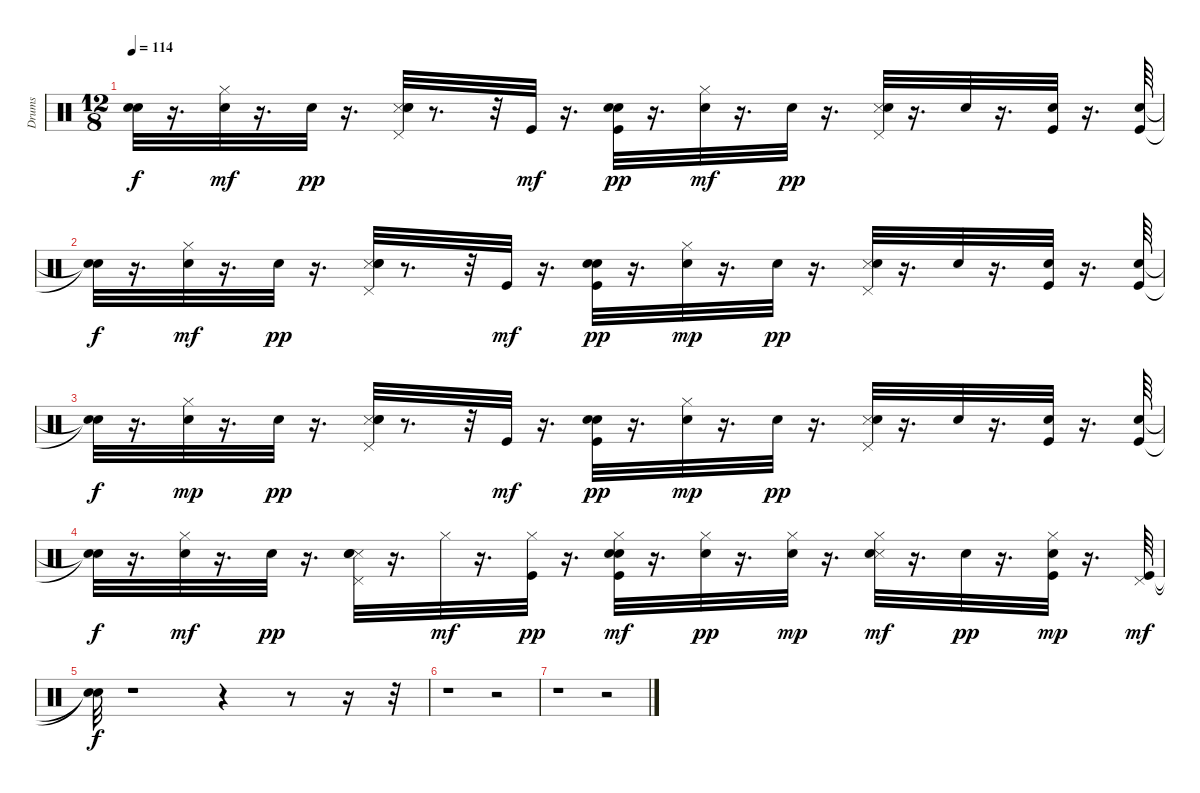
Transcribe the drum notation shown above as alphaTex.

\track ("Drums" "Drums") {instrument percussion}
\staff {score}
\articulation defaults
\ts (12 8)
\tempo 114
\clef neutral
\ks c
("Snare (hit)"{t} "Snare (hit)"{t}).32{dy f} r.16{d} ("Snare (hit) 2" "Hi-Hat (closed)").32{dy mf} r.16{d} "Snare (hit) 2".32{dy pp} r.16{d} ("Snare (side stick) 3" "Snare (hit) 2" "Electric Snare (hit)" "Pedal Hi-Hat (hit)").32 r.8{d} r.32 "Kick (hit)".32{dy mf} r.16{d} ("Kick (hit)" "Snare (hit) 2" "Electric Snare (hit)").32{dy pp} r.16{d} ("Snare (hit) 2" "Hi-Hat (closed)").32{dy mf} r.16{d} "Snare (hit) 2".32{dy pp} r.16{d} ("Snare (side stick) 3" "Electric Snare (hit)" "Pedal Hi-Hat (hit)").32 r.16{d} "Snare (hit) 2".32 r.16{d} ("Kick (hit)" "Snare (hit) 2").32 r.16{d} ("Kick (hit)" "Electric Snare (hit)").64 |
("Snare (hit)"{t} "Snare (hit)"{t}).32{dy f} r.16{d} ("Snare (hit) 2" "Hi-Hat (closed)").32{dy mf} r.16{d} "Snare (hit) 2".32{dy pp} r.16{d} ("Snare (side stick) 3" "Snare (hit) 2" "Electric Snare (hit)" "Pedal Hi-Hat (hit)").32 r.8{d} r.32 "Kick (hit)".32{dy mf} r.16{d} ("Kick (hit)" "Snare (hit) 2" "Electric Snare (hit)").32{dy pp} r.16{d} ("Snare (hit) 2" "Hi-Hat (closed)").32{dy mp} r.16{d} "Snare (hit) 2".32{dy pp} r.16{d} ("Snare (side stick) 3" "Electric Snare (hit)" "Pedal Hi-Hat (hit)").32 r.16{d} "Snare (hit) 2".32 r.16{d} ("Kick (hit)" "Snare (hit) 2").32 r.16{d} ("Kick (hit)" "Electric Snare (hit)").64 |
("Snare (hit)"{t} "Snare (hit)"{t}).32{dy f} r.16{d} ("Snare (hit) 2" "Hi-Hat (closed)").32{dy mp} r.16{d} "Snare (hit) 2".32{dy pp} r.16{d} ("Snare (side stick) 3" "Snare (hit) 2" "Electric Snare (hit)" "Pedal Hi-Hat (hit)").32 r.8{d} r.32 "Kick (hit)".32{dy mf} r.16{d} ("Kick (hit)" "Snare (hit) 2" "Electric Snare (hit)").32{dy pp} r.16{d} ("Snare (hit) 2" "Hi-Hat (closed)").32{dy mp} r.16{d} "Snare (hit) 2".32{dy pp} r.16{d} ("Snare (side stick) 3" "Electric Snare (hit)" "Pedal Hi-Hat (hit)").32 r.16{d} "Snare (hit) 2".32 r.16{d} ("Kick (hit)" "Snare (hit) 2").32 r.16{d} ("Kick (hit)" "Electric Snare (hit)").64 |
("Snare (hit)"{t} "Snare (hit)"{t}).32{dy f} r.16{d} ("Snare (hit) 2" "Hi-Hat (closed)").32{dy mf} r.16{d} "Snare (hit) 2".32{dy pp} r.16{d} ("Snare (side stick) 3" "Snare (hit) 2" "Electric Snare (hit)" "Pedal Hi-Hat (hit)").32 r.16{d} "Hi-Hat (closed)".32{dy mf} r.16{d} ("Kick (hit)" "Hi-Hat (closed)").32{dy pp} r.16{d} ("Kick (hit)" "Snare (hit) 2" "Electric Snare (hit)" "Hi-Hat (closed)").32{dy mf} r.16{d} ("Snare (hit) 2" "Hi-Hat (closed)").32{dy pp} r.16{d} ("Snare (hit) 2" "Hi-Hat (closed)").32{dy mp} r.16{d} ("Snare (side stick) 3" "Electric Snare (hit)" "Hi-Hat (closed)").32{dy mf} r.16{d} "Snare (hit) 2".32{dy pp} r.16{d} ("Kick (hit)" "Snare (hit) 2" "Hi-Hat (closed)").32{dy mp} r.16{d} ("Kick (hit)" "Pedal Hi-Hat (hit)").64{dy mf} |
("Snare (hit)"{t} "Snare (hit)"{t}).32{dy f} r.1 r.4 r.8 r.16 r.32 |
r.1 r.2 |
r.1 r.2
